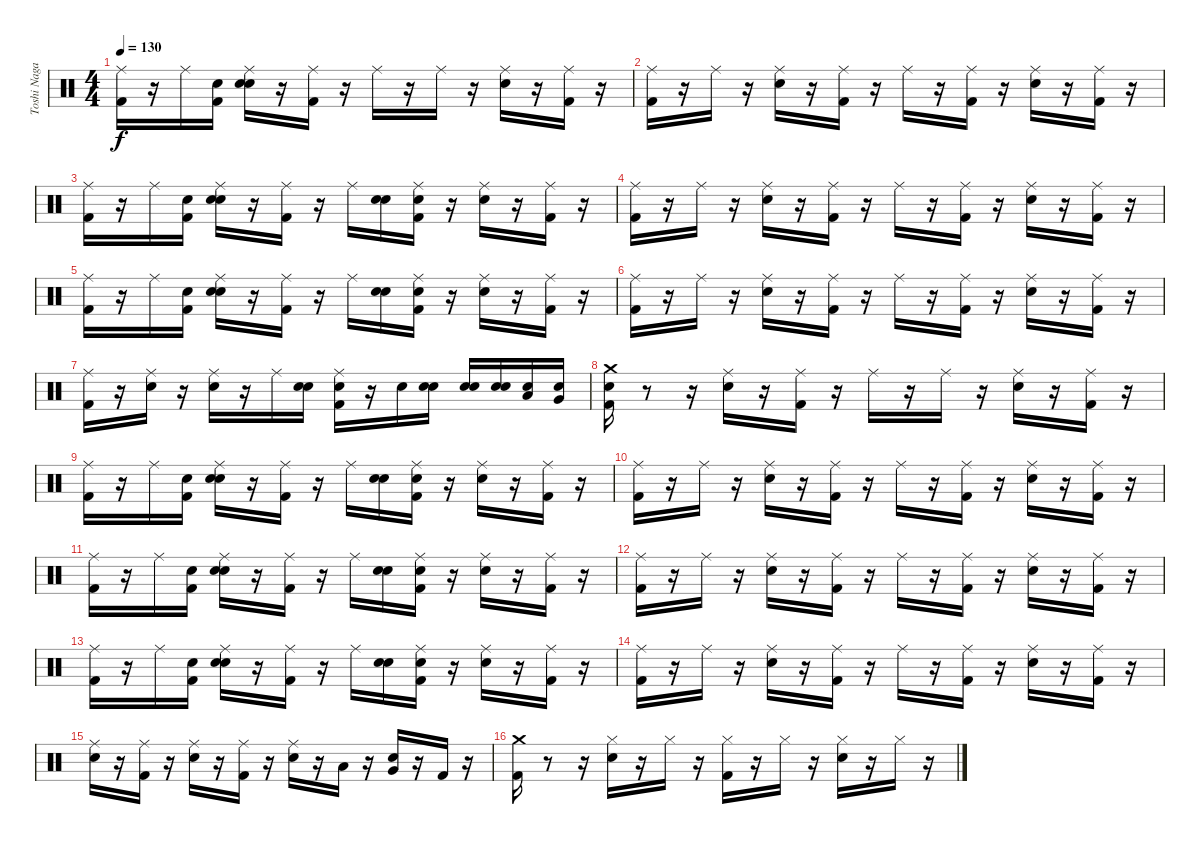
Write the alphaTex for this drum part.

\track ("Toshi Nagai" "Toshi Naga") {instrument percussion}
\staff {score}
\articulation defaults
\ts (4 4)
\tempo 130
\clef neutral
\ks c
("Ride (middle)" "Kick (hit) 2").16{dy f} r.16 "Ride (middle)".16 ("Snare (hit)" "Kick (hit) 2").16 ("Snare (hit)" "Ride (middle)" "Electric Snare (hit)").16 r.16 ("Ride (middle)" "Kick (hit) 2").16 r.16 "Ride (middle)".16 r.16 "Ride (middle)".16 r.16 ("Electric Snare (hit)" "Ride (middle)").16 r.16 ("Kick (hit) 2" "Ride (middle)").16 r.16 |
("Kick (hit) 2" "Ride (middle)").16 r.16 "Ride (middle)".16 r.16 ("Electric Snare (hit)" "Ride (middle)").16 r.16 ("Kick (hit) 2" "Ride (middle)").16 r.16 "Ride (middle)".16 r.16 ("Kick (hit) 2" "Ride (middle)").16 r.16 ("Electric Snare (hit)" "Ride (middle)").16 r.16 ("Kick (hit) 2" "Ride (middle)").16 r.16 |
("Kick (hit) 2" "Ride (middle)").16 r.16 "Ride (middle)".16 ("Snare (hit)" "Kick (hit) 2").16 ("Snare (hit)" "Ride (middle)" "Electric Snare (hit)").16 r.16 ("Ride (middle)" "Kick (hit) 2").16 r.16 "Ride (middle)".16 ("Snare (hit)" "Electric Snare (hit)").16 ("Snare (hit)" "Kick (hit) 2" "Ride (middle)").16 r.16 ("Electric Snare (hit)" "Ride (middle)").16 r.16 ("Kick (hit) 2" "Ride (middle)").16 r.16 |
("Kick (hit) 2" "Ride (middle)").16 r.16 "Ride (middle)".16 r.16 ("Electric Snare (hit)" "Ride (middle)").16 r.16 ("Kick (hit) 2" "Ride (middle)").16 r.16 "Ride (middle)".16 r.16 ("Kick (hit) 2" "Ride (middle)").16 r.16 ("Electric Snare (hit)" "Ride (middle)").16 r.16 ("Kick (hit) 2" "Ride (middle)").16 r.16 |
("Kick (hit) 2" "Ride (middle)").16 r.16 "Ride (middle)".16 ("Snare (hit)" "Kick (hit) 2").16 ("Snare (hit)" "Ride (middle)" "Electric Snare (hit)").16 r.16 ("Ride (middle)" "Kick (hit) 2").16 r.16 "Ride (middle)".16 ("Snare (hit)" "Electric Snare (hit)").16 ("Snare (hit)" "Ride (middle)" "Kick (hit) 2").16 r.16 ("Ride (middle)" "Electric Snare (hit)").16 r.16 ("Ride (middle)" "Kick (hit) 2").16 r.16 |
("Kick (hit) 2" "Ride (middle)").16 r.16 "Ride (middle)".16 r.16 ("Electric Snare (hit)" "Ride (middle)").16 r.16 ("Kick (hit) 2" "Ride (middle)").16 r.16 "Ride (middle)".16 r.16 ("Kick (hit) 2" "Ride (middle)").16 r.16 ("Electric Snare (hit)" "Ride (middle)").16 r.16 ("Kick (hit) 2" "Ride (middle)").16 r.16 |
("Kick (hit) 2" "Ride (middle)").16 r.16 ("Electric Snare (hit)" "Ride (middle)").16 r.16 ("Electric Snare (hit)" "Ride (middle)").16 r.16 "Ride (middle)".16 ("Snare (hit)" "Electric Snare (hit)").16 ("Snare (hit)" "Ride (middle)" "Kick (hit) 2").16 r.16 "Electric Snare (hit)".16 ("Snare (hit)" "Electric Snare (hit)").16 ("Snare (hit)" "Electric Snare (hit)").16 ("Snare (hit)" "Electric Snare (hit)").16 ("Snare (hit)" "Low Tom (hit)").16 ("Snare (hit)" "Very Low Tom (hit)").16 |
("Snare (hit)" "Kick (hit) 2" "Crash medium (hit)").16 r.8 r.16 ("Electric Snare (hit)" "Ride (middle)").16 r.16 ("Kick (hit) 2" "Ride (middle)").16 r.16 "Ride (middle)".16 r.16 "Ride (middle)".16 r.16 ("Electric Snare (hit)" "Ride (middle)").16 r.16 ("Kick (hit) 2" "Ride (middle)").16 r.16 |
("Kick (hit) 2" "Ride (middle)").16 r.16 "Ride (middle)".16 ("Snare (hit)" "Kick (hit) 2").16 ("Snare (hit)" "Ride (middle)" "Electric Snare (hit)").16 r.16 ("Ride (middle)" "Kick (hit) 2").16 r.16 "Ride (middle)".16 ("Snare (hit)" "Electric Snare (hit)").16 ("Snare (hit)" "Kick (hit) 2" "Ride (middle)").16 r.16 ("Electric Snare (hit)" "Ride (middle)").16 r.16 ("Kick (hit) 2" "Ride (middle)").16 r.16 |
("Kick (hit) 2" "Ride (middle)").16 r.16 "Ride (middle)".16 r.16 ("Electric Snare (hit)" "Ride (middle)").16 r.16 ("Kick (hit) 2" "Ride (middle)").16 r.16 "Ride (middle)".16 r.16 ("Kick (hit) 2" "Ride (middle)").16 r.16 ("Electric Snare (hit)" "Ride (middle)").16 r.16 ("Kick (hit) 2" "Ride (middle)").16 r.16 |
("Kick (hit) 2" "Ride (middle)").16 r.16 "Ride (middle)".16 ("Snare (hit)" "Kick (hit) 2").16 ("Snare (hit)" "Ride (middle)" "Electric Snare (hit)").16 r.16 ("Ride (middle)" "Kick (hit) 2").16 r.16 "Ride (middle)".16 ("Snare (hit)" "Electric Snare (hit)").16 ("Snare (hit)" "Ride (middle)" "Kick (hit) 2").16 r.16 ("Ride (middle)" "Electric Snare (hit)").16 r.16 ("Ride (middle)" "Kick (hit) 2").16 r.16 |
("Kick (hit) 2" "Ride (middle)").16 r.16 "Ride (middle)".16 r.16 ("Electric Snare (hit)" "Ride (middle)").16 r.16 ("Kick (hit) 2" "Ride (middle)").16 r.16 "Ride (middle)".16 r.16 ("Kick (hit) 2" "Ride (middle)").16 r.16 ("Electric Snare (hit)" "Ride (middle)").16 r.16 ("Kick (hit) 2" "Ride (middle)").16 r.16 |
("Kick (hit) 2" "Ride (middle)").16 r.16 "Ride (middle)".16 ("Snare (hit)" "Kick (hit) 2").16 ("Snare (hit)" "Ride (middle)" "Electric Snare (hit)").16 r.16 ("Ride (middle)" "Kick (hit) 2").16 r.16 "Ride (middle)".16 ("Snare (hit)" "Electric Snare (hit)").16 ("Snare (hit)" "Ride (middle)" "Kick (hit) 2").16 r.16 ("Ride (middle)" "Electric Snare (hit)").16 r.16 ("Ride (middle)" "Kick (hit) 2").16 r.16 |
("Kick (hit) 2" "Ride (middle)").16 r.16 "Ride (middle)".16 r.16 ("Electric Snare (hit)" "Ride (middle)").16 r.16 ("Kick (hit) 2" "Ride (middle)").16 r.16 "Ride (middle)".16 r.16 ("Kick (hit) 2" "Ride (middle)").16 r.16 ("Electric Snare (hit)" "Ride (middle)").16 r.16 ("Kick (hit) 2" "Ride (middle)").16 r.16 |
("Electric Snare (hit)" "Ride (middle)").16 r.16 ("Kick (hit) 2" "Ride (middle)").16 r.16 ("Electric Snare (hit)" "Ride (middle)").16 r.16 ("Kick (hit) 2" "Ride (middle)").16 r.16 ("Electric Snare (hit)" "Ride (middle)").16 r.16 "Low Tom (hit)".16 r.16 ("Electric Snare (hit)" "Very Low Tom (hit)").16 r.16 "Kick (hit) 2".16 r.16 |
("Crash medium (hit)" "Kick (hit) 2").16 r.8 r.16 ("Hi-Hat (closed)" "Electric Snare (hit)").16 r.16 "Hi-Hat (closed)".16 r.16 ("Hi-Hat (closed)" "Kick (hit) 2").16 r.16 "Hi-Hat (closed)".16 r.16 ("Hi-Hat (closed)" "Electric Snare (hit)").16 r.16 "Hi-Hat (closed)".16 r.16
